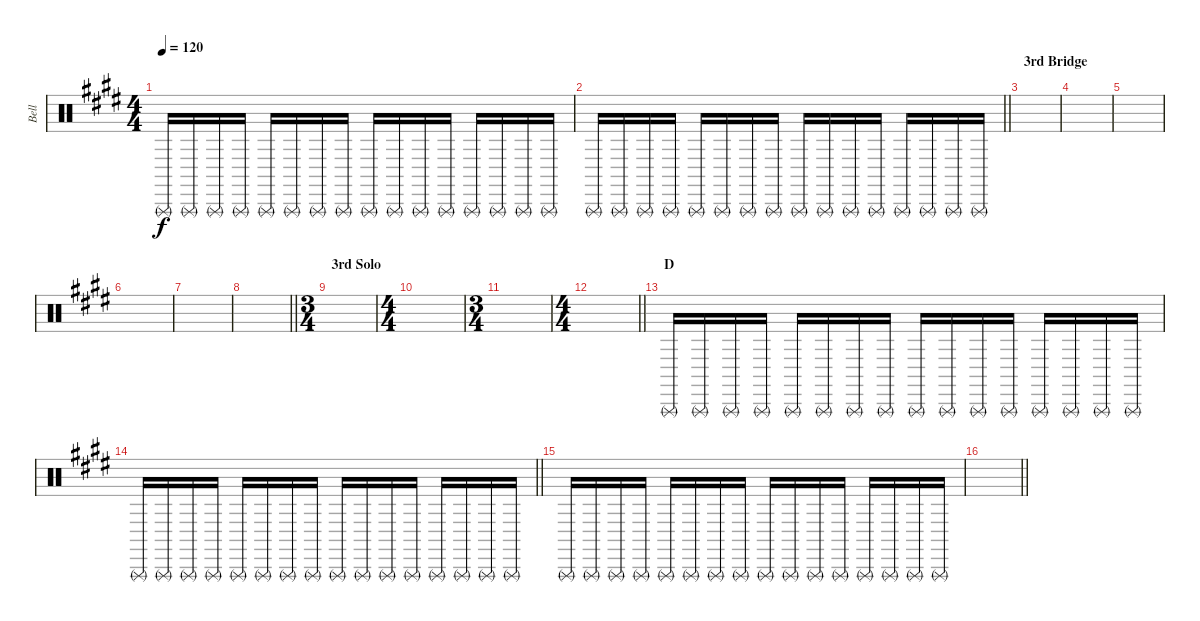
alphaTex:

\track ("Bell" "Bell") {instrument percussion}
\staff {score}
\articulation defaults
\ts (4 4)
\tempo 120
\clef neutral
\ks e "Triangle (rnute)".16{dy f} "Triangle (rnute)".16 "Triangle (rnute)".16 "Triangle (rnute)".16 "Triangle (rnute)".16 "Triangle (rnute)".16 "Triangle (rnute)".16 "Triangle (rnute)".16 "Triangle (rnute)".16 "Triangle (rnute)".16 "Triangle (rnute)".16 "Triangle (rnute)".16 "Triangle (rnute)".16 "Triangle (rnute)".16 "Triangle (rnute)".16 "Triangle (rnute)".16
|
\barLineRight lightlight "Triangle (rnute)".16 "Triangle (rnute)".16 "Triangle (rnute)".16 "Triangle (rnute)".16 "Triangle (rnute)".16 "Triangle (rnute)".16 "Triangle (rnute)".16 "Triangle (rnute)".16 "Triangle (rnute)".16 "Triangle (rnute)".16 "Triangle (rnute)".16 "Triangle (rnute)".16 "Triangle (rnute)".16 "Triangle (rnute)".16 "Triangle (rnute)".16 "Triangle (rnute)".16
|
\section ("" "3rd Bridge")
|
|
|
|
|
\barLineRight lightlight
|
\ts (3 4)
\section ("" "3rd Solo")
|
\ts (4 4)
|
\ts (3 4)
|
\ts (4 4)
\barLineRight lightlight
|
\section ("" "D")
"Triangle (rnute)".16 "Triangle (rnute)".16 "Triangle (rnute)".16 "Triangle (rnute)".16 "Triangle (rnute)".16 "Triangle (rnute)".16 "Triangle (rnute)".16 "Triangle (rnute)".16 "Triangle (rnute)".16 "Triangle (rnute)".16 "Triangle (rnute)".16 "Triangle (rnute)".16 "Triangle (rnute)".16 "Triangle (rnute)".16 "Triangle (rnute)".16 "Triangle (rnute)".16 |
\barLineRight lightlight "Triangle (rnute)".16 "Triangle (rnute)".16 "Triangle (rnute)".16 "Triangle (rnute)".16 "Triangle (rnute)".16 "Triangle (rnute)".16 "Triangle (rnute)".16 "Triangle (rnute)".16 "Triangle (rnute)".16 "Triangle (rnute)".16 "Triangle (rnute)".16 "Triangle (rnute)".16 "Triangle (rnute)".16 "Triangle (rnute)".16 "Triangle (rnute)".16 "Triangle (rnute)".16
|
"Triangle (rnute)".16 "Triangle (rnute)".16 "Triangle (rnute)".16 "Triangle (rnute)".16 "Triangle (rnute)".16 "Triangle (rnute)".16 "Triangle (rnute)".16 "Triangle (rnute)".16 "Triangle (rnute)".16 "Triangle (rnute)".16 "Triangle (rnute)".16 "Triangle (rnute)".16 "Triangle (rnute)".16 "Triangle (rnute)".16 "Triangle (rnute)".16 "Triangle (rnute)".16 |
\barLineRight lightlight
